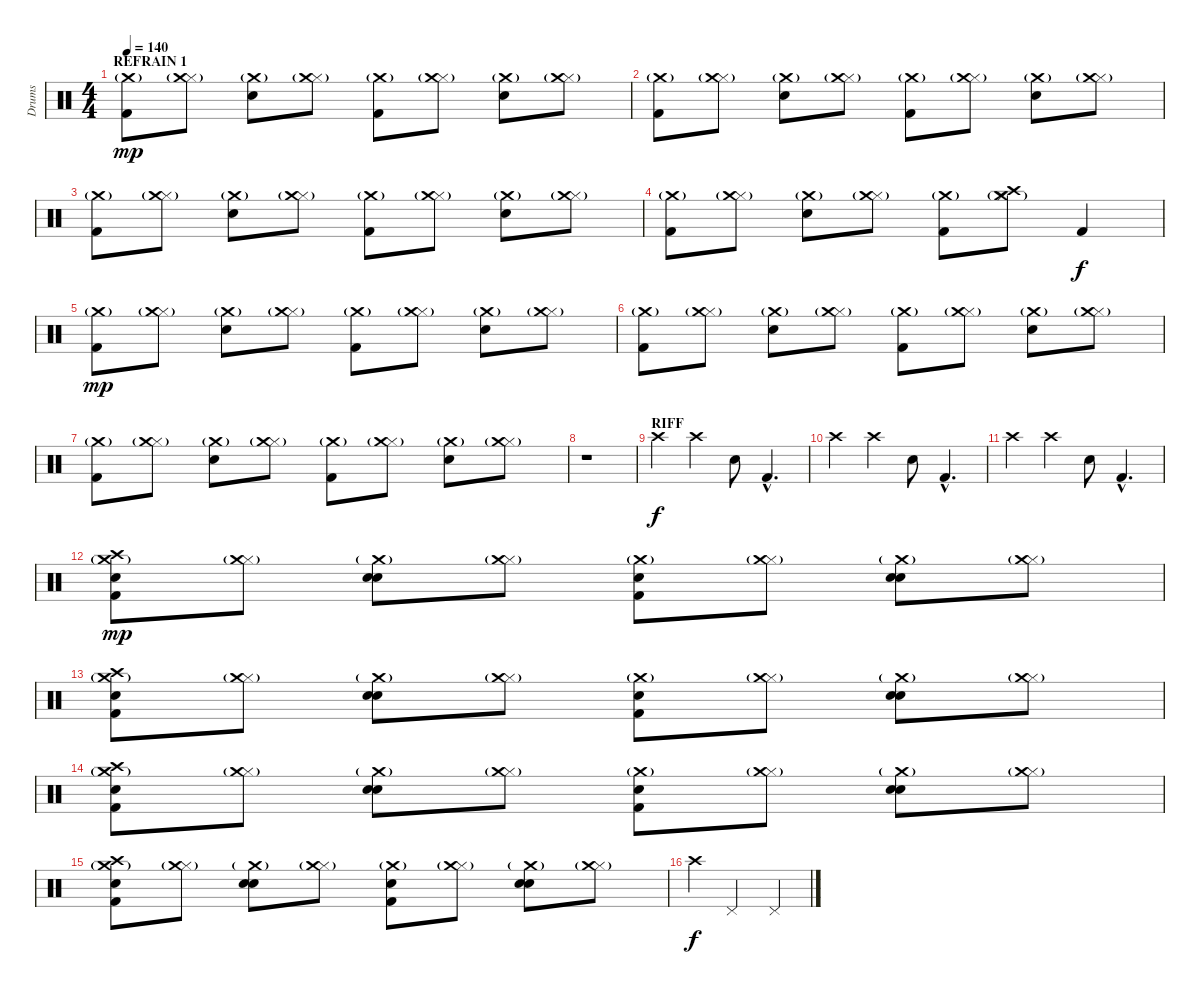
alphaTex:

\track ("Drums" "Drums") {instrument percussion}
\staff {score}
\articulation defaults
\ts (4 4)
\section ("" "REFRAIN 1")
\tempo 140
\clef neutral
\ks c
("Kick (hit) 2" "Crash medium (hit)"{g}).8{dy mp} ("Hi-Hat (closed)" "Crash medium (hit)"{g}).8 ("Electric Snare (hit)" "Crash medium (hit)"{g}).8 ("Hi-Hat (closed)" "Crash medium (hit)"{g}).8 ("Kick (hit) 2" "Crash medium (hit)"{g}).8 ("Hi-Hat (closed)" "Crash medium (hit)"{g}).8 ("Electric Snare (hit)" "Crash medium (hit)"{g}).8 ("Hi-Hat (closed)" "Crash medium (hit)"{g}).8 |
("Kick (hit) 2" "Crash medium (hit)"{g}).8 ("Hi-Hat (closed)" "Crash medium (hit)"{g}).8 ("Electric Snare (hit)" "Crash medium (hit)"{g}).8 ("Hi-Hat (closed)" "Crash medium (hit)"{g}).8 ("Kick (hit) 2" "Crash medium (hit)"{g}).8 ("Hi-Hat (closed)" "Crash medium (hit)"{g}).8 ("Electric Snare (hit)" "Crash medium (hit)"{g}).8 ("Hi-Hat (closed)" "Crash medium (hit)"{g}).8 |
("Kick (hit) 2" "Crash medium (hit)"{g}).8 ("Hi-Hat (closed)" "Crash medium (hit)"{g}).8 ("Electric Snare (hit)" "Crash medium (hit)"{g}).8 ("Hi-Hat (closed)" "Crash medium (hit)"{g}).8 ("Kick (hit) 2" "Crash medium (hit)"{g}).8 ("Hi-Hat (closed)" "Crash medium (hit)"{g}).8 ("Electric Snare (hit)" "Crash medium (hit)"{g}).8 ("Hi-Hat (closed)" "Crash medium (hit)"{g}).8 |
("Kick (hit) 2" "Crash medium (hit)"{g}).8 ("Hi-Hat (closed)" "Crash medium (hit)"{g}).8 ("Electric Snare (hit)" "Crash medium (hit)"{g}).8 ("Hi-Hat (closed)" "Crash medium (hit)"{g}).8 ("Kick (hit) 2" "Crash medium (hit)"{g}).8 ("Hi-Hat (closed)" "Crash medium (hit)"{g} "Crash high (hit)").8 "Kick (hit) 2".4{dy f} |
("Kick (hit) 2" "Crash medium (hit)"{g}).8{dy mp} ("Hi-Hat (closed)" "Crash medium (hit)"{g}).8 ("Electric Snare (hit)" "Crash medium (hit)"{g}).8 ("Hi-Hat (closed)" "Crash medium (hit)"{g}).8 ("Kick (hit) 2" "Crash medium (hit)"{g}).8 ("Hi-Hat (closed)" "Crash medium (hit)"{g}).8 ("Electric Snare (hit)" "Crash medium (hit)"{g}).8 ("Hi-Hat (closed)" "Crash medium (hit)"{g}).8 |
("Kick (hit) 2" "Crash medium (hit)"{g}).8 ("Hi-Hat (closed)" "Crash medium (hit)"{g}).8 ("Electric Snare (hit)" "Crash medium (hit)"{g}).8 ("Hi-Hat (closed)" "Crash medium (hit)"{g}).8 ("Kick (hit) 2" "Crash medium (hit)"{g}).8 ("Hi-Hat (closed)" "Crash medium (hit)"{g}).8 ("Electric Snare (hit)" "Crash medium (hit)"{g}).8 ("Hi-Hat (closed)" "Crash medium (hit)"{g}).8 |
("Kick (hit) 2" "Crash medium (hit)"{g}).8 ("Hi-Hat (closed)" "Crash medium (hit)"{g}).8 ("Electric Snare (hit)" "Crash medium (hit)"{g}).8 ("Hi-Hat (closed)" "Crash medium (hit)"{g}).8 ("Kick (hit) 2" "Crash medium (hit)"{g}).8 ("Hi-Hat (closed)" "Crash medium (hit)"{g}).8 ("Electric Snare (hit)" "Crash medium (hit)"{g}).8 ("Hi-Hat (closed)" "Crash medium (hit)"{g}).8 |
r.1 |
\section ("" "RIFF")
"Crash high (hit)".4{dy f} "Crash high (hit)".4 "Electric Snare (hit)".8 "Kick (hit) 2"{hac}.4{d} |
"Crash high (hit)".4 "Crash high (hit)".4 "Electric Snare (hit)".8 "Kick (hit) 2"{hac}.4{d} |
"Crash high (hit)".4 "Crash high (hit)".4 "Electric Snare (hit)".8 "Kick (hit) 2"{hac}.4{d} |
("Kick (hit) 2" "Hand Clap (hit)" "Crash medium (hit)"{g} "Crash high (hit)").8{dy mp} ("Hi-Hat (closed)" "Crash medium (hit)"{g}).8 ("Electric Snare (hit)" "Hand Clap (hit)" "Crash medium (hit)"{g}).8 ("Hi-Hat (closed)" "Crash medium (hit)"{g}).8 ("Kick (hit) 2" "Hand Clap (hit)" "Crash medium (hit)"{g}).8 ("Hi-Hat (closed)" "Crash medium (hit)"{g}).8 ("Electric Snare (hit)" "Hand Clap (hit)" "Crash medium (hit)"{g}).8 ("Hi-Hat (closed)" "Crash medium (hit)"{g}).8 |
("Kick (hit) 2" "Hand Clap (hit)" "Crash medium (hit)"{g} "Crash high (hit)").8 ("Hi-Hat (closed)" "Crash medium (hit)"{g}).8 ("Electric Snare (hit)" "Hand Clap (hit)" "Crash medium (hit)"{g}).8 ("Hi-Hat (closed)" "Crash medium (hit)"{g}).8 ("Kick (hit) 2" "Hand Clap (hit)" "Crash medium (hit)"{g}).8 ("Hi-Hat (closed)" "Crash medium (hit)"{g}).8 ("Electric Snare (hit)" "Hand Clap (hit)" "Crash medium (hit)"{g}).8 ("Hi-Hat (closed)" "Crash medium (hit)"{g}).8 |
("Kick (hit) 2" "Hand Clap (hit)" "Crash medium (hit)"{g} "Crash high (hit)").8 ("Hi-Hat (closed)" "Crash medium (hit)"{g}).8 ("Electric Snare (hit)" "Hand Clap (hit)" "Crash medium (hit)"{g}).8 ("Hi-Hat (closed)" "Crash medium (hit)"{g}).8 ("Kick (hit) 2" "Hand Clap (hit)" "Crash medium (hit)"{g}).8 ("Hi-Hat (closed)" "Crash medium (hit)"{g}).8 ("Electric Snare (hit)" "Hand Clap (hit)" "Crash medium (hit)"{g}).8 ("Hi-Hat (closed)" "Crash medium (hit)"{g}).8 |
("Kick (hit) 2" "Hand Clap (hit)" "Crash medium (hit)"{g} "Crash high (hit)").8 ("Hi-Hat (closed)" "Crash medium (hit)"{g}).8 ("Electric Snare (hit)" "Hand Clap (hit)" "Crash medium (hit)"{g}).8 ("Hi-Hat (closed)" "Crash medium (hit)"{g}).8 ("Kick (hit) 2" "Hand Clap (hit)" "Crash medium (hit)"{g}).8 ("Hi-Hat (closed)" "Crash medium (hit)"{g}).8 ("Electric Snare (hit)" "Hand Clap (hit)" "Crash medium (hit)"{g}).8 ("Hi-Hat (closed)" "Crash medium (hit)"{g}).8 |
"Crash high (hit)".4{dy f} "Pedal Hi-Hat (hit)".2 "Pedal Hi-Hat (hit)".4
